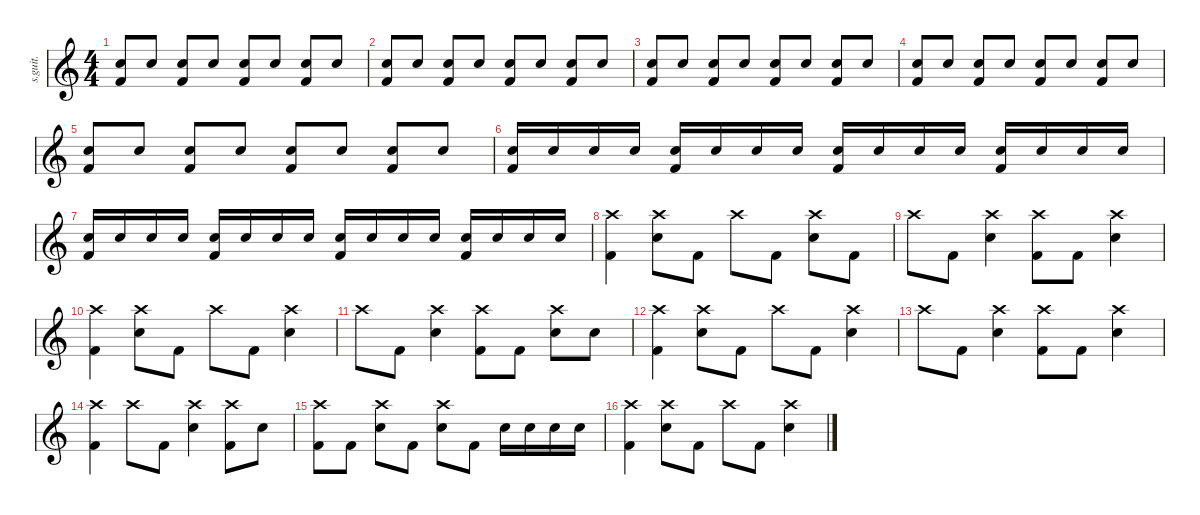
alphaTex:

\defaultSystemsLayout 4
\hideDynamics
\bracketExtendMode nobrackets
\track ("" "s.guit.") {instrument percussion}
\staff {score}
\articulation defaults
\ts (4 4)
\tempo (190 hide)
\clef g2
\ks c
("Snare (hit) 2" "Kick (hit) 2").8{dy f} "Snare (hit) 2".8 ("Snare (hit) 2" "Kick (hit) 2").8 "Snare (hit) 2".8 ("Snare (hit) 2" "Kick (hit) 2").8 "Snare (hit) 2".8 ("Snare (hit) 2" "Kick (hit) 2").8 "Snare (hit) 2".8 |
("Snare (hit) 2" "Kick (hit) 2").8 "Snare (hit) 2".8 ("Snare (hit) 2" "Kick (hit) 2").8 "Snare (hit) 2".8 ("Snare (hit) 2" "Kick (hit) 2").8 "Snare (hit) 2".8 ("Snare (hit) 2" "Kick (hit) 2").8 "Snare (hit) 2".8 |
("Snare (hit) 2" "Kick (hit) 2").8 "Snare (hit) 2".8 ("Snare (hit) 2" "Kick (hit) 2").8 "Snare (hit) 2".8 ("Snare (hit) 2" "Kick (hit) 2").8 "Snare (hit) 2".8 ("Snare (hit) 2" "Kick (hit) 2").8 "Snare (hit) 2".8 |
("Snare (hit) 2" "Kick (hit) 2").8 "Snare (hit) 2".8 ("Snare (hit) 2" "Kick (hit) 2").8 "Snare (hit) 2".8 ("Snare (hit) 2" "Kick (hit) 2").8 "Snare (hit) 2".8 ("Snare (hit) 2" "Kick (hit) 2").8 "Snare (hit) 2".8 |
("Snare (hit) 2" "Kick (hit) 2").8 "Snare (hit) 2".8 ("Snare (hit) 2" "Kick (hit) 2").8 "Snare (hit) 2".8 ("Snare (hit) 2" "Kick (hit) 2").8 "Snare (hit) 2".8 ("Snare (hit) 2" "Kick (hit) 2").8 "Snare (hit) 2".8 |
("Snare (hit) 2" "Kick (hit) 2").16 "Snare (hit) 2".16 "Snare (hit) 2".16 "Snare (hit) 2".16 ("Snare (hit) 2" "Kick (hit) 2").16 "Snare (hit) 2".16 "Snare (hit) 2".16 "Snare (hit) 2".16 ("Snare (hit) 2" "Kick (hit) 2").16 "Snare (hit) 2".16 "Snare (hit) 2".16 "Snare (hit) 2".16 ("Snare (hit) 2" "Kick (hit) 2").16 "Snare (hit) 2".16 "Snare (hit) 2".16 "Snare (hit) 2".16 |
("Snare (hit) 2" "Kick (hit) 2").16 "Snare (hit) 2".16 "Snare (hit) 2".16 "Snare (hit) 2".16 ("Snare (hit) 2" "Kick (hit) 2").16 "Snare (hit) 2".16 "Snare (hit) 2".16 "Snare (hit) 2".16 ("Snare (hit) 2" "Kick (hit) 2").16 "Snare (hit) 2".16 "Snare (hit) 2".16 "Snare (hit) 2".16 ("Snare (hit) 2" "Kick (hit) 2").16 "Snare (hit) 2".16 "Snare (hit) 2".16 "Snare (hit) 2".16 |
("Crash high (hit)" "Kick (hit) 2").4 ("Crash high (hit)" "Snare (hit) 2").8 "Kick (hit) 2".8 "Crash high (hit)".8 "Kick (hit) 2".8 ("Crash high (hit)" "Snare (hit) 2").8 "Kick (hit) 2".8 |
"Crash high (hit)".8 "Kick (hit) 2".8 ("Crash high (hit)" "Snare (hit) 2").4 ("Crash high (hit)" "Kick (hit) 2").8 "Kick (hit) 2".8 ("Crash high (hit)" "Snare (hit) 2").4 |
("Crash high (hit)" "Kick (hit) 2").4 ("Crash high (hit)" "Snare (hit) 2").8 "Kick (hit) 2".8 "Crash high (hit)".8 "Kick (hit) 2".8 ("Crash high (hit)" "Snare (hit) 2").4 |
"Crash high (hit)".8 "Kick (hit) 2".8 ("Crash high (hit)" "Snare (hit) 2").4 ("Crash high (hit)" "Kick (hit) 2").8 "Kick (hit) 2".8 ("Crash high (hit)" "Snare (hit) 2").8 "Snare (hit) 2".8 |
("Crash high (hit)" "Kick (hit) 2").4 ("Crash high (hit)" "Snare (hit) 2").8 "Kick (hit) 2".8 "Crash high (hit)".8 "Kick (hit) 2".8 ("Crash high (hit)" "Snare (hit) 2").4 |
"Crash high (hit)".8 "Kick (hit) 2".8 ("Crash high (hit)" "Snare (hit) 2").4 ("Crash high (hit)" "Kick (hit) 2").8 "Kick (hit) 2".8 ("Crash high (hit)" "Snare (hit) 2").4 |
("Crash high (hit)" "Kick (hit) 2").4 "Crash high (hit)".8 "Kick (hit) 2".8 ("Crash high (hit)" "Snare (hit) 2").4 ("Crash high (hit)" "Kick (hit) 2").8 "Snare (hit) 2".8 |
("Crash high (hit)" "Kick (hit) 2").8 "Kick (hit) 2".8 ("Crash high (hit)" "Snare (hit) 2").8 "Kick (hit) 2".8 ("Crash high (hit)" "Snare (hit) 2").8 "Kick (hit) 2".8 "Snare (hit) 2".16 "Snare (hit) 2".16 "Snare (hit) 2".16 "Snare (hit) 2".16 |
("Crash high (hit)" "Kick (hit) 2").4 ("Crash high (hit)" "Snare (hit) 2").8 "Kick (hit) 2".8 "Crash high (hit)".8 "Kick (hit) 2".8 ("Crash high (hit)" "Snare (hit) 2").4
